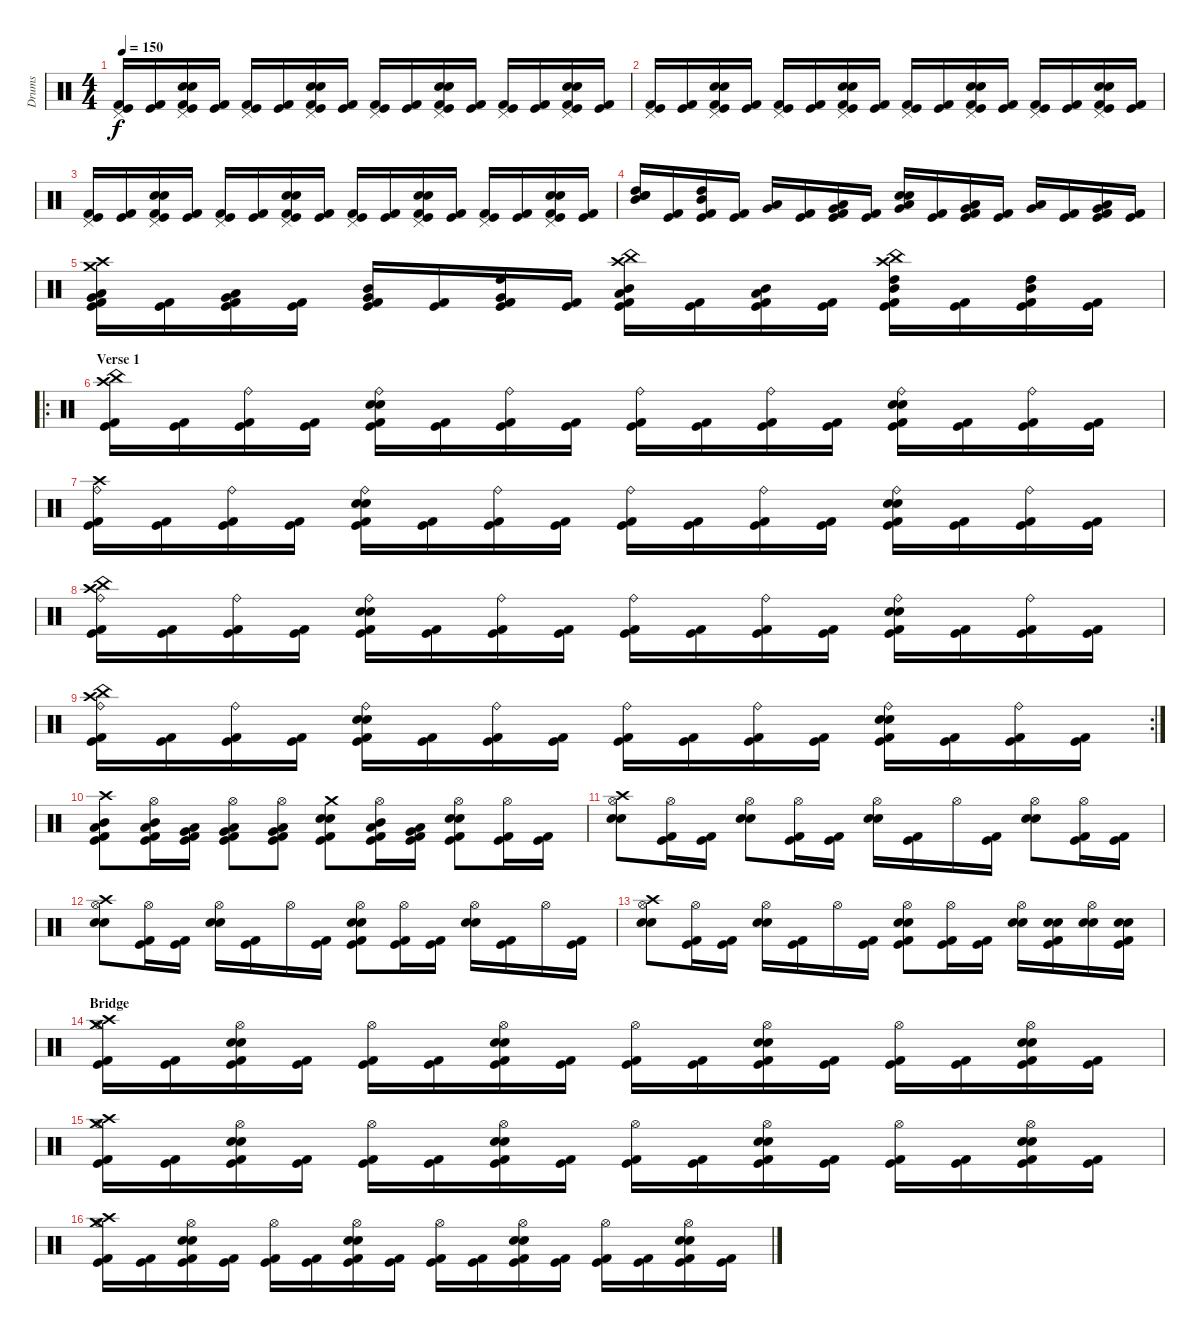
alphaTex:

\track ("Drums" "Drums") {instrument percussion}
\staff {score}
\articulation defaults
\ts (4 4)
\tempo 150
\clef neutral
\ks c
("Pedal Hi-Hat (hit)" "Kick (hit) 2" "Kick (hit)").16{dy f} ("Kick (hit) 2" "Kick (hit)").16 ("Pedal Hi-Hat (hit)" "Electric Snare (hit)" "Snare (hit) 2" "Kick (hit) 2" "Kick (hit)").16 ("Kick (hit) 2" "Kick (hit)").16 ("Pedal Hi-Hat (hit)" "Kick (hit) 2" "Kick (hit)").16 ("Kick (hit) 2" "Kick (hit)").16 ("Pedal Hi-Hat (hit)" "Electric Snare (hit)" "Snare (hit) 2" "Kick (hit) 2" "Kick (hit)").16 ("Kick (hit) 2" "Kick (hit)").16 ("Pedal Hi-Hat (hit)" "Kick (hit) 2" "Kick (hit)").16 ("Kick (hit) 2" "Kick (hit)").16 ("Pedal Hi-Hat (hit)" "Electric Snare (hit)" "Snare (hit) 2" "Kick (hit) 2" "Kick (hit)").16 ("Kick (hit) 2" "Kick (hit)").16 ("Pedal Hi-Hat (hit)" "Kick (hit) 2" "Kick (hit)").16 ("Kick (hit) 2" "Kick (hit)").16 ("Pedal Hi-Hat (hit)" "Electric Snare (hit)" "Snare (hit) 2" "Kick (hit) 2" "Kick (hit)").16 ("Kick (hit) 2" "Kick (hit)").16 |
("Pedal Hi-Hat (hit)" "Kick (hit) 2" "Kick (hit)").16 ("Kick (hit) 2" "Kick (hit)").16 ("Pedal Hi-Hat (hit)" "Electric Snare (hit)" "Snare (hit) 2" "Kick (hit) 2" "Kick (hit)").16 ("Kick (hit) 2" "Kick (hit)").16 ("Pedal Hi-Hat (hit)" "Kick (hit) 2" "Kick (hit)").16 ("Kick (hit) 2" "Kick (hit)").16 ("Pedal Hi-Hat (hit)" "Electric Snare (hit)" "Snare (hit) 2" "Kick (hit) 2" "Kick (hit)").16 ("Kick (hit) 2" "Kick (hit)").16 ("Pedal Hi-Hat (hit)" "Kick (hit) 2" "Kick (hit)").16 ("Kick (hit) 2" "Kick (hit)").16 ("Pedal Hi-Hat (hit)" "Electric Snare (hit)" "Snare (hit) 2" "Kick (hit) 2" "Kick (hit)").16 ("Kick (hit) 2" "Kick (hit)").16 ("Pedal Hi-Hat (hit)" "Kick (hit) 2" "Kick (hit)").16 ("Kick (hit) 2" "Kick (hit)").16 ("Pedal Hi-Hat (hit)" "Electric Snare (hit)" "Snare (hit) 2" "Kick (hit) 2" "Kick (hit)").16 ("Kick (hit) 2" "Kick (hit)").16 |
("Pedal Hi-Hat (hit)" "Kick (hit) 2" "Kick (hit)").16 ("Kick (hit) 2" "Kick (hit)").16 ("Pedal Hi-Hat (hit)" "Electric Snare (hit)" "Snare (hit) 2" "Kick (hit) 2" "Kick (hit)").16 ("Kick (hit) 2" "Kick (hit)").16 ("Pedal Hi-Hat (hit)" "Kick (hit) 2" "Kick (hit)").16 ("Kick (hit) 2" "Kick (hit)").16 ("Pedal Hi-Hat (hit)" "Electric Snare (hit)" "Snare (hit) 2" "Kick (hit) 2" "Kick (hit)").16 ("Kick (hit) 2" "Kick (hit)").16 ("Pedal Hi-Hat (hit)" "Kick (hit) 2" "Kick (hit)").16 ("Kick (hit) 2" "Kick (hit)").16 ("Pedal Hi-Hat (hit)" "Electric Snare (hit)" "Snare (hit) 2" "Kick (hit) 2" "Kick (hit)").16 ("Kick (hit) 2" "Kick (hit)").16 ("Pedal Hi-Hat (hit)" "Kick (hit) 2" "Kick (hit)").16 ("Kick (hit) 2" "Kick (hit)").16 ("Pedal Hi-Hat (hit)" "Electric Snare (hit)" "Snare (hit) 2" "Kick (hit) 2" "Kick (hit)").16 ("Kick (hit) 2" "Kick (hit)").16 |
("Snare (hit) 2" "Electric Snare (hit)" "Mid Tom (hit)" "High Tom (hit)").16 ("Kick (hit) 2" "Kick (hit)").16 ("Mid Tom (hit)" "High Tom (hit)" "Kick (hit) 2" "Kick (hit)").16 ("Kick (hit) 2" "Kick (hit)").16 ("Very Low Tom (hit)" "Low Tom (hit)").16 ("Kick (hit) 2" "Kick (hit)").16 ("Very Low Tom (hit)" "Low Tom (hit)" "Kick (hit) 2" "Kick (hit)").16 ("Kick (hit) 2" "Kick (hit)").16 ("Snare (hit) 2" "Electric Snare (hit)" "Very Low Tom (hit)" "Low Floor Tom (hit)").16 ("Kick (hit) 2" "Kick (hit)").16 ("Very Low Tom (hit)" "Low Floor Tom (hit)" "Kick (hit) 2" "Kick (hit)").16 ("Kick (hit) 2" "Kick (hit)").16 ("Low Tom (hit)" "Very Low Tom (hit)").16 ("Kick (hit) 2" "Kick (hit)").16 ("Low Tom (hit)" "Very Low Tom (hit)" "Kick (hit) 2" "Kick (hit)").16 ("Kick (hit) 2" "Kick (hit)").16 |
("Crash medium (hit)" "Crash high (hit)" "Low Tom (hit)" "Very Low Tom (hit)" "Kick (hit)" "Kick (hit) 2").16 ("Kick (hit)" "Kick (hit) 2").16 ("Low Tom (hit)" "Very Low Tom (hit)" "Kick (hit)" "Kick (hit) 2").16 ("Kick (hit)" "Kick (hit) 2").16 ("Mid Tom (hit)" "Very Low Tom (hit)" "Kick (hit)" "Kick (hit) 2").16 ("Kick (hit)" "Kick (hit) 2").16 ("High Tom (hit)" "Very Low Tom (hit)" "Kick (hit)" "Kick (hit) 2").16 ("Kick (hit)" "Kick (hit) 2").16 ("China (hit)" "Crash high (hit)" "Mid Tom (hit)" "Low Tom (hit)" "Kick (hit)" "Kick (hit) 2").16 ("Kick (hit)" "Kick (hit) 2").16 ("Mid Tom (hit)" "Low Tom (hit)" "Kick (hit)" "Kick (hit) 2").16 ("Kick (hit)" "Kick (hit) 2").16 ("China (hit)" "Crash high (hit)" "High Tom (hit)" "Mid Tom (hit)" "Kick (hit)" "Kick (hit) 2").16 ("Kick (hit)" "Kick (hit) 2").16 ("Mid Tom (hit)" "High Tom (hit)" "Kick (hit)" "Kick (hit) 2").16 ("Kick (hit)" "Kick (hit) 2").16 |
\ro
\section ("" "Verse 1")
("Crash high (hit)" "China (hit)" "Kick (hit)" "Kick (hit) 2").16 ("Kick (hit) 2" "Kick (hit)").16 ("Ride (bell)" "Kick (hit) 2" "Kick (hit)").16 ("Kick (hit) 2" "Kick (hit)").16 ("Ride (bell)" "Snare (hit) 2" "Electric Snare (hit)" "Kick (hit) 2" "Kick (hit)").16 ("Kick (hit) 2" "Kick (hit)").16 ("Ride (bell)" "Kick (hit) 2" "Kick (hit)").16 ("Kick (hit) 2" "Kick (hit)").16 ("Ride (bell)" "Kick (hit) 2" "Kick (hit)").16 ("Kick (hit) 2" "Kick (hit)").16 ("Ride (bell)" "Kick (hit) 2" "Kick (hit)").16 ("Kick (hit) 2" "Kick (hit)").16 ("Ride (bell)" "Snare (hit) 2" "Electric Snare (hit)" "Kick (hit) 2" "Kick (hit)").16 ("Kick (hit) 2" "Kick (hit)").16 ("Ride (bell)" "Kick (hit) 2" "Kick (hit)").16 ("Kick (hit) 2" "Kick (hit)").16 |
("Crash high (hit)" "Ride (bell)" "Kick (hit)" "Kick (hit) 2").16 ("Kick (hit) 2" "Kick (hit)").16 ("Ride (bell)" "Kick (hit) 2" "Kick (hit)").16 ("Kick (hit) 2" "Kick (hit)").16 ("Ride (bell)" "Snare (hit) 2" "Electric Snare (hit)" "Kick (hit) 2" "Kick (hit)").16 ("Kick (hit) 2" "Kick (hit)").16 ("Ride (bell)" "Kick (hit) 2" "Kick (hit)").16 ("Kick (hit) 2" "Kick (hit)").16 ("Ride (bell)" "Kick (hit) 2" "Kick (hit)").16 ("Kick (hit) 2" "Kick (hit)").16 ("Ride (bell)" "Kick (hit) 2" "Kick (hit)").16 ("Kick (hit) 2" "Kick (hit)").16 ("Ride (bell)" "Snare (hit) 2" "Electric Snare (hit)" "Kick (hit) 2" "Kick (hit)").16 ("Kick (hit) 2" "Kick (hit)").16 ("Ride (bell)" "Kick (hit) 2" "Kick (hit)").16 ("Kick (hit) 2" "Kick (hit)").16 |
("Crash high (hit)" "China (hit)" "Ride (bell)" "Kick (hit)" "Kick (hit) 2").16 ("Kick (hit) 2" "Kick (hit)").16 ("Ride (bell)" "Kick (hit) 2" "Kick (hit)").16 ("Kick (hit) 2" "Kick (hit)").16 ("Ride (bell)" "Snare (hit) 2" "Electric Snare (hit)" "Kick (hit) 2" "Kick (hit)").16 ("Kick (hit) 2" "Kick (hit)").16 ("Ride (bell)" "Kick (hit) 2" "Kick (hit)").16 ("Kick (hit) 2" "Kick (hit)").16 ("Ride (bell)" "Kick (hit) 2" "Kick (hit)").16 ("Kick (hit) 2" "Kick (hit)").16 ("Ride (bell)" "Kick (hit) 2" "Kick (hit)").16 ("Kick (hit) 2" "Kick (hit)").16 ("Ride (bell)" "Snare (hit) 2" "Electric Snare (hit)" "Kick (hit) 2" "Kick (hit)").16 ("Kick (hit) 2" "Kick (hit)").16 ("Ride (bell)" "Kick (hit) 2" "Kick (hit)").16 ("Kick (hit) 2" "Kick (hit)").16 |
\rc 2
("Crash high (hit)" "China (hit)" "Ride (bell)" "Kick (hit)" "Kick (hit) 2").16 ("Kick (hit) 2" "Kick (hit)").16 ("Ride (bell)" "Kick (hit) 2" "Kick (hit)").16 ("Kick (hit) 2" "Kick (hit)").16 ("Ride (bell)" "Snare (hit) 2" "Electric Snare (hit)" "Kick (hit) 2" "Kick (hit)").16 ("Kick (hit) 2" "Kick (hit)").16 ("Ride (bell)" "Kick (hit) 2" "Kick (hit)").16 ("Kick (hit) 2" "Kick (hit)").16 ("Ride (bell)" "Kick (hit) 2" "Kick (hit)").16 ("Kick (hit) 2" "Kick (hit)").16 ("Ride (bell)" "Kick (hit) 2" "Kick (hit)").16 ("Kick (hit) 2" "Kick (hit)").16 ("Ride (bell)" "Snare (hit) 2" "Electric Snare (hit)" "Kick (hit) 2" "Kick (hit)").16 ("Kick (hit) 2" "Kick (hit)").16 ("Ride (bell)" "Kick (hit) 2" "Kick (hit)").16 ("Kick (hit) 2" "Kick (hit)").16 |
("Crash high (hit)" "Mid Tom (hit)" "Low Tom (hit)" "Kick (hit) 2" "Kick (hit)").8 ("Hi-Hat (open)" "Mid Tom (hit)" "Low Tom (hit)" "Kick (hit) 2" "Kick (hit)").16 ("Very Low Tom (hit)" "Low Tom (hit)" "Kick (hit) 2" "Kick (hit)").16 ("Hi-Hat (open)" "Low Floor Tom (hit)" "Very Low Tom (hit)" "Kick (hit) 2" "Kick (hit)").8 ("Hi-Hat (open)" "Low Floor Tom (hit)" "Very Low Tom (hit)" "Kick (hit) 2" "Kick (hit)").8 ("Crash medium (hit)" "Electric Snare (hit)" "Snare (hit) 2" "Kick (hit)" "Kick (hit) 2").8 ("Hi-Hat (open)" "Mid Tom (hit)" "Low Tom (hit)" "Kick (hit)" "Kick (hit) 2").16 ("Very Low Tom (hit)" "Low Tom (hit)" "Kick (hit)" "Kick (hit) 2").16 ("Hi-Hat (open)" "Electric Snare (hit)" "Snare (hit) 2" "Kick (hit)" "Kick (hit) 2").8 ("Hi-Hat (open)" "Kick (hit)" "Kick (hit) 2").16 ("Kick (hit)" "Kick (hit) 2").16 |
("Crash high (hit)" "Hi-Hat (open)" "Electric Snare (hit)" "Snare (hit) 2").8 ("Hi-Hat (open)" "Kick (hit) 2" "Kick (hit)").16 ("Kick (hit) 2" "Kick (hit)").16 ("Hi-Hat (open)" "Electric Snare (hit)" "Snare (hit) 2").8 ("Hi-Hat (open)" "Kick (hit)" "Kick (hit) 2").16 ("Kick (hit)" "Kick (hit) 2").16 ("Hi-Hat (open)" "Electric Snare (hit)" "Snare (hit) 2").16 ("Kick (hit) 2" "Kick (hit)").16 "Hi-Hat (open)".16 ("Kick (hit) 2" "Kick (hit)").16 ("Hi-Hat (open)" "Electric Snare (hit)" "Snare (hit) 2").8 ("Hi-Hat (open)" "Kick (hit)" "Kick (hit) 2").16 ("Kick (hit) 2" "Kick (hit)").16 |
("Crash high (hit)" "Hi-Hat (open)" "Electric Snare (hit)" "Snare (hit) 2").8 ("Hi-Hat (open)" "Kick (hit) 2" "Kick (hit)").16 ("Kick (hit) 2" "Kick (hit)").16 ("Hi-Hat (open)" "Electric Snare (hit)" "Snare (hit) 2").16 ("Kick (hit) 2" "Kick (hit)").16 "Hi-Hat (open)".16 ("Kick (hit)" "Kick (hit) 2").16 ("Hi-Hat (open)" "Snare (hit) 2" "Electric Snare (hit)" "Kick (hit)" "Kick (hit) 2").8 ("Hi-Hat (open)" "Kick (hit) 2" "Kick (hit)").16 ("Kick (hit) 2" "Kick (hit)").16 ("Hi-Hat (open)" "Electric Snare (hit)" "Snare (hit) 2").16 ("Kick (hit)" "Kick (hit) 2").16 "Hi-Hat (open)".16 ("Kick (hit)" "Kick (hit) 2").16 |
("Crash high (hit)" "Hi-Hat (open)" "Electric Snare (hit)" "Snare (hit) 2").8 ("Hi-Hat (open)" "Kick (hit) 2" "Kick (hit)").16 ("Kick (hit) 2" "Kick (hit)").16 ("Hi-Hat (open)" "Electric Snare (hit)" "Snare (hit) 2").16 ("Kick (hit) 2" "Kick (hit)").16 "Hi-Hat (open)".16 ("Kick (hit)" "Kick (hit) 2").16 ("Hi-Hat (open)" "Snare (hit) 2" "Electric Snare (hit)" "Kick (hit)" "Kick (hit) 2").8 ("Hi-Hat (open)" "Kick (hit) 2" "Kick (hit)").16 ("Kick (hit) 2" "Kick (hit)").16 ("Hi-Hat (open)" "Electric Snare (hit)" "Snare (hit) 2").16 ("Electric Snare (hit)" "Snare (hit) 2" "Kick (hit)" "Kick (hit) 2").16 ("Hi-Hat (open)" "Electric Snare (hit)" "Snare (hit) 2").16 ("Electric Snare (hit)" "Snare (hit) 2" "Kick (hit)" "Kick (hit) 2").16 |
\section ("" "Bridge")
("Crash high (hit)" "Hi-Hat (open)" "Crash medium (hit)" "Kick (hit)" "Kick (hit) 2").16 ("Kick (hit)" "Kick (hit) 2").16 ("Hi-Hat (open)" "Electric Snare (hit)" "Snare (hit) 2" "Kick (hit)" "Kick (hit) 2").16 ("Kick (hit)" "Kick (hit) 2").16 ("Hi-Hat (open)" "Kick (hit)" "Kick (hit) 2").16 ("Kick (hit)" "Kick (hit) 2").16 ("Hi-Hat (open)" "Electric Snare (hit)" "Snare (hit) 2" "Kick (hit)" "Kick (hit) 2").16 ("Kick (hit)" "Kick (hit) 2").16 ("Hi-Hat (open)" "Kick (hit)" "Kick (hit) 2").16 ("Kick (hit)" "Kick (hit) 2").16 ("Hi-Hat (open)" "Electric Snare (hit)" "Snare (hit) 2" "Kick (hit)" "Kick (hit) 2").16 ("Kick (hit)" "Kick (hit) 2").16 ("Hi-Hat (open)" "Kick (hit)" "Kick (hit) 2").16 ("Kick (hit)" "Kick (hit) 2").16 ("Hi-Hat (open)" "Electric Snare (hit)" "Snare (hit) 2" "Kick (hit)" "Kick (hit) 2").16 ("Kick (hit)" "Kick (hit) 2").16 |
("Crash high (hit)" "Hi-Hat (open)" "Crash medium (hit)" "Kick (hit)" "Kick (hit) 2").16 ("Kick (hit)" "Kick (hit) 2").16 ("Hi-Hat (open)" "Electric Snare (hit)" "Snare (hit) 2" "Kick (hit)" "Kick (hit) 2").16 ("Kick (hit)" "Kick (hit) 2").16 ("Hi-Hat (open)" "Kick (hit)" "Kick (hit) 2").16 ("Kick (hit)" "Kick (hit) 2").16 ("Hi-Hat (open)" "Electric Snare (hit)" "Snare (hit) 2" "Kick (hit)" "Kick (hit) 2").16 ("Kick (hit)" "Kick (hit) 2").16 ("Hi-Hat (open)" "Kick (hit)" "Kick (hit) 2").16 ("Kick (hit)" "Kick (hit) 2").16 ("Hi-Hat (open)" "Electric Snare (hit)" "Snare (hit) 2" "Kick (hit)" "Kick (hit) 2").16 ("Kick (hit)" "Kick (hit) 2").16 ("Hi-Hat (open)" "Kick (hit)" "Kick (hit) 2").16 ("Kick (hit)" "Kick (hit) 2").16 ("Hi-Hat (open)" "Electric Snare (hit)" "Snare (hit) 2" "Kick (hit)" "Kick (hit) 2").16 ("Kick (hit)" "Kick (hit) 2").16 |
("Crash high (hit)" "Hi-Hat (open)" "Crash medium (hit)" "Kick (hit)" "Kick (hit) 2").16 ("Kick (hit)" "Kick (hit) 2").16 ("Hi-Hat (open)" "Electric Snare (hit)" "Snare (hit) 2" "Kick (hit)" "Kick (hit) 2").16 ("Kick (hit)" "Kick (hit) 2").16 ("Hi-Hat (open)" "Kick (hit)" "Kick (hit) 2").16 ("Kick (hit)" "Kick (hit) 2").16 ("Hi-Hat (open)" "Electric Snare (hit)" "Snare (hit) 2" "Kick (hit)" "Kick (hit) 2").16 ("Kick (hit)" "Kick (hit) 2").16 ("Hi-Hat (open)" "Kick (hit)" "Kick (hit) 2").16 ("Kick (hit)" "Kick (hit) 2").16 ("Hi-Hat (open)" "Electric Snare (hit)" "Snare (hit) 2" "Kick (hit)" "Kick (hit) 2").16 ("Kick (hit)" "Kick (hit) 2").16 ("Hi-Hat (open)" "Kick (hit)" "Kick (hit) 2").16 ("Kick (hit)" "Kick (hit) 2").16 ("Hi-Hat (open)" "Electric Snare (hit)" "Snare (hit) 2" "Kick (hit)" "Kick (hit) 2").16 ("Kick (hit)" "Kick (hit) 2").16
